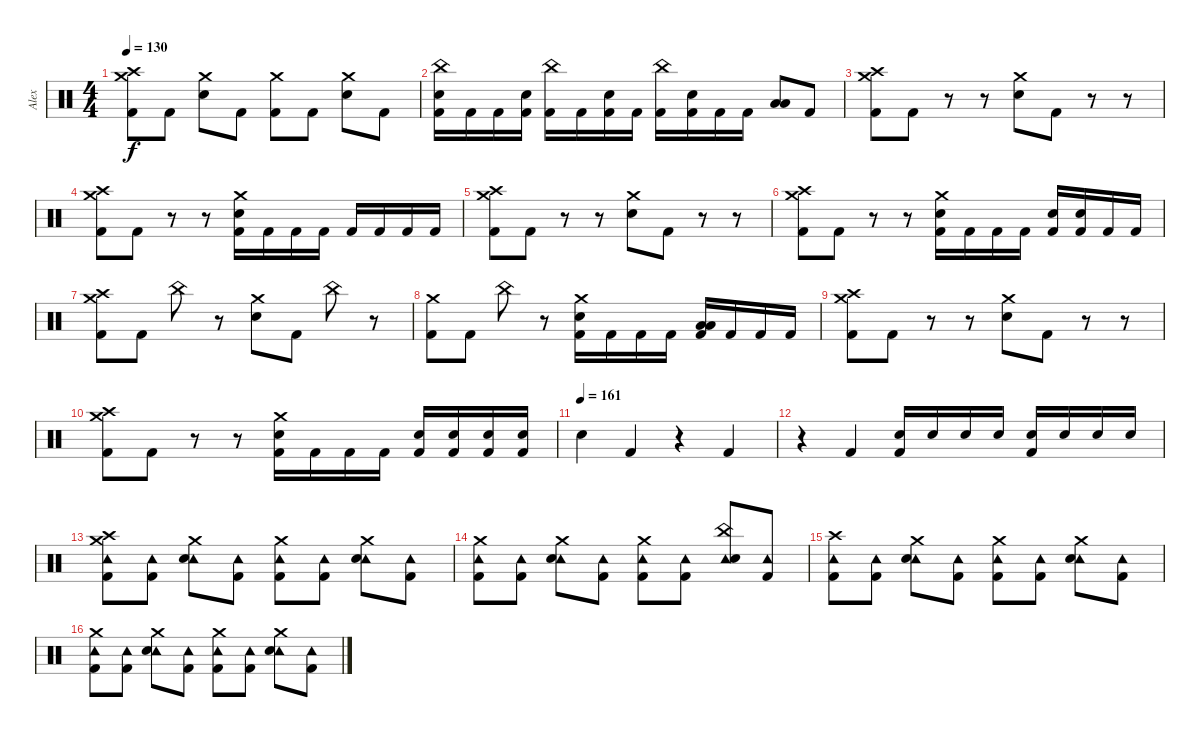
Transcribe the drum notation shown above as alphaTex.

\track ("Alex" "Alex") {instrument percussion}
\staff
\articulation defaults
\ts (4 4)
\tempo 130
\clef neutral
\ks c
("Crash medium (hit)" "Crash high (hit)" "Kick (hit) 2").8{dy f} "Kick (hit) 2".8 ("Crash medium (hit)" "Electric Snare (hit)").8 "Kick (hit) 2".8 ("Crash medium (hit)" "Kick (hit) 2").8 "Kick (hit) 2".8 ("Crash medium (hit)" "Electric Snare (hit)").8 "Kick (hit) 2".8 |
("China (hit)" "Electric Snare (hit)" "Kick (hit) 2").16 "Kick (hit) 2".16 "Kick (hit) 2".16 ("Electric Snare (hit)" "Kick (hit) 2").16 ("China (hit)" "Kick (hit) 2").16 "Kick (hit) 2".16 ("Electric Snare (hit)" "Kick (hit) 2").16 "Kick (hit) 2".16 ("China (hit)" "Kick (hit) 2").16 ("Electric Snare (hit)" "Kick (hit) 2").16 "Kick (hit) 2".16 "Kick (hit) 2".16 ("Low Tom (hit)" "Low Floor Tom (hit)").8 "Kick (hit) 2".8 |
("Crash medium (hit)" "Crash high (hit)" "Kick (hit) 2").8 "Kick (hit) 2".8 r.8 r.8 ("Crash medium (hit)" "Electric Snare (hit)").8 "Kick (hit) 2".8 r.8 r.8 |
("Crash medium (hit)" "Crash high (hit)" "Kick (hit) 2").8 "Kick (hit) 2".8 r.8 r.8 ("Crash medium (hit)" "Electric Snare (hit)" "Kick (hit) 2").16 "Kick (hit) 2".16 "Kick (hit) 2".16 "Kick (hit) 2".16 "Kick (hit) 2".16 "Kick (hit) 2".16 "Kick (hit) 2".16 "Kick (hit) 2".16 |
("Crash medium (hit)" "Crash high (hit)" "Kick (hit) 2").8 "Kick (hit) 2".8 r.8 r.8 ("Crash medium (hit)" "Electric Snare (hit)").8 "Kick (hit) 2".8 r.8 r.8 |
("Crash medium (hit)" "Crash high (hit)" "Kick (hit) 2").8 "Kick (hit) 2".8 r.8 r.8 ("Crash medium (hit)" "Electric Snare (hit)" "Kick (hit) 2").16 "Kick (hit) 2".16 "Kick (hit) 2".16 "Kick (hit) 2".16 ("Electric Snare (hit)" "Kick (hit) 2").16 ("Electric Snare (hit)" "Kick (hit) 2").16 "Kick (hit) 2".16 "Kick (hit) 2".16 |
("Crash medium (hit)" "Crash high (hit)" "Kick (hit) 2").8 "Kick (hit) 2".8 "China (hit)".8 r.8 ("Crash medium (hit)" "Electric Snare (hit)").8 "Kick (hit) 2".8 "China (hit)".8 r.8 |
("Crash medium (hit)" "Kick (hit) 2").8 "Kick (hit) 2".8 "China (hit)".8 r.8 ("Crash medium (hit)" "Electric Snare (hit)" "Kick (hit) 2").16 "Kick (hit) 2".16 "Kick (hit) 2".16 "Kick (hit) 2".16 ("Low Tom (hit)" "Low Floor Tom (hit)" "Kick (hit) 2").16 "Kick (hit) 2".16 "Kick (hit) 2".16 "Kick (hit) 2".16 |
("Crash medium (hit)" "Crash high (hit)" "Kick (hit) 2").8 "Kick (hit) 2".8 r.8 r.8 ("Crash medium (hit)" "Electric Snare (hit)").8 "Kick (hit) 2".8 r.8 r.8 |
("Crash medium (hit)" "Crash high (hit)" "Kick (hit) 2").8 "Kick (hit) 2".8 r.8 r.8 ("Crash medium (hit)" "Electric Snare (hit)" "Kick (hit) 2").16 "Kick (hit) 2".16 "Kick (hit) 2".16 "Kick (hit) 2".16 ("Electric Snare (hit)" "Kick (hit) 2").16 ("Electric Snare (hit)" "Kick (hit) 2").16 ("Electric Snare (hit)" "Kick (hit) 2").16 ("Electric Snare (hit)" "Kick (hit) 2").16 |
\tempo (161)
"Electric Snare (hit)".4 "Kick (hit) 2".4 r.4 "Kick (hit) 2".4 |
r.4 "Kick (hit) 2".4 ("Electric Snare (hit)" "Kick (hit) 2").16 "Electric Snare (hit)".16 "Electric Snare (hit)".16 "Electric Snare (hit)".16 ("Electric Snare (hit)" "Kick (hit) 2").16 "Electric Snare (hit)".16 "Electric Snare (hit)".16 "Electric Snare (hit)".16 |
("Crash medium (hit)" "Crash high (hit)" "Tambourine (hit)" "Kick (hit) 2").8 ("Tambourine (hit)" "Kick (hit) 2").8 ("Crash medium (hit)" "Tambourine (hit)" "Electric Snare (hit)").8 ("Tambourine (hit)" "Kick (hit) 2").8 ("Crash medium (hit)" "Tambourine (hit)" "Kick (hit) 2").8 ("Tambourine (hit)" "Kick (hit) 2").8 ("Crash medium (hit)" "Tambourine (hit)" "Electric Snare (hit)").8 ("Tambourine (hit)" "Kick (hit) 2").8 |
("Crash medium (hit)" "Tambourine (hit)" "Kick (hit) 2").8 ("Tambourine (hit)" "Kick (hit) 2").8 ("Crash medium (hit)" "Tambourine (hit)" "Electric Snare (hit)").8 ("Tambourine (hit)" "Kick (hit) 2").8 ("Crash medium (hit)" "Tambourine (hit)" "Kick (hit) 2").8 ("Tambourine (hit)" "Kick (hit) 2").8 ("China (hit)" "Tambourine (hit)" "Electric Snare (hit)").8 ("Tambourine (hit)" "Kick (hit) 2").8 |
("Crash high (hit)" "Tambourine (hit)" "Kick (hit) 2").8 ("Tambourine (hit)" "Kick (hit) 2").8 ("Crash medium (hit)" "Tambourine (hit)" "Electric Snare (hit)").8 ("Tambourine (hit)" "Kick (hit) 2").8 ("Crash medium (hit)" "Tambourine (hit)" "Kick (hit) 2").8 ("Tambourine (hit)" "Kick (hit) 2").8 ("Crash medium (hit)" "Tambourine (hit)" "Electric Snare (hit)").8 ("Tambourine (hit)" "Kick (hit) 2").8 |
("Crash medium (hit)" "Tambourine (hit)" "Kick (hit) 2").8 ("Tambourine (hit)" "Kick (hit) 2").8 ("Crash medium (hit)" "Tambourine (hit)" "Electric Snare (hit)").8 ("Tambourine (hit)" "Kick (hit) 2").8 ("Crash medium (hit)" "Tambourine (hit)" "Kick (hit) 2").8 ("Tambourine (hit)" "Kick (hit) 2").8 ("Crash medium (hit)" "Tambourine (hit)" "Electric Snare (hit)").8 ("Tambourine (hit)" "Kick (hit) 2").8
